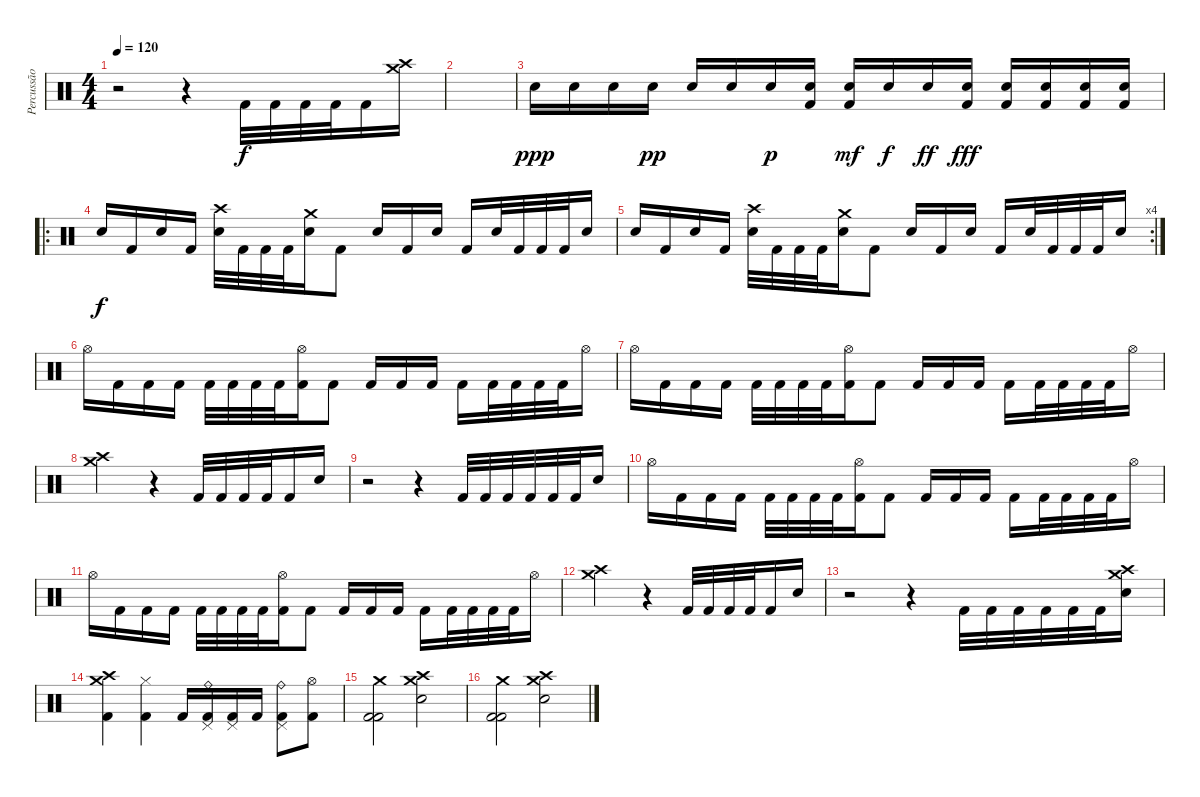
\track ("Percussão" "Percussão") {instrument percussion}
\staff {score}
\articulation defaults
\ts (4 4)
\tempo 120
\clef neutral
\ks c
r.2{dy f} r.4 "Kick (hit) 2".32 "Kick (hit) 2".32 "Kick (hit) 2".32 "Kick (hit) 2".32 "Kick (hit) 2".16 ("Crash high (hit)" "Crash medium (hit)").16 |
|
"Snare (hit) 2".16{dy ppp} "Snare (hit) 2".16 "Snare (hit) 2".16 "Snare (hit) 2".16{dy pp} "Snare (hit) 2".16 "Snare (hit) 2".16 "Snare (hit) 2".16{dy p} ("Snare (hit) 2" "Kick (hit) 2").16 ("Snare (hit) 2" "Kick (hit) 2").16{dy mf} "Snare (hit) 2".16{dy f} "Snare (hit) 2".16{dy ff} ("Snare (hit) 2" "Kick (hit) 2").16{dy fff} ("Snare (hit) 2" "Kick (hit) 2").16 ("Snare (hit) 2" "Kick (hit) 2").16 ("Snare (hit) 2" "Kick (hit) 2").16 ("Snare (hit) 2" "Kick (hit) 2").16 |
\ro "Snare (hit) 2".16{dy f} "Kick (hit) 2".16 "Snare (hit) 2".16 "Kick (hit) 2".16
("Crash high (hit)" "Snare (hit) 2").32 "Kick (hit) 2".32 "Kick (hit) 2".32 "Kick (hit) 2".32 ("Crash medium (hit)" "Snare (hit) 2").16 "Kick (hit) 2".8 "Snare (hit) 2".16 "Kick (hit) 2".16 "Snare (hit) 2".16 "Kick (hit) 2".16 "Snare (hit) 2".32 "Kick (hit) 2".32 "Kick (hit) 2".32 "Kick (hit) 2".32 "Snare (hit) 2".16 |
\rc 4 "Snare (hit) 2".16 "Kick (hit) 2".16 "Snare (hit) 2".16 "Kick (hit) 2".16
("Crash high (hit)" "Snare (hit) 2").32 "Kick (hit) 2".32 "Kick (hit) 2".32 "Kick (hit) 2".32 ("Crash medium (hit)" "Snare (hit) 2").16 "Kick (hit) 2".8 "Snare (hit) 2".16 "Kick (hit) 2".16 "Snare (hit) 2".16 "Kick (hit) 2".16 "Snare (hit) 2".32 "Kick (hit) 2".32 "Kick (hit) 2".32 "Kick (hit) 2".32 "Snare (hit) 2".16 |
"Hi-Hat (open)".16 "Kick (hit) 2".16 "Kick (hit) 2".16 "Kick (hit) 2".16 "Kick (hit) 2".32 "Kick (hit) 2".32 "Kick (hit) 2".32 "Kick (hit) 2".32 ("Kick (hit) 2" "Hi-Hat (open)").16 "Kick (hit) 2".8 "Kick (hit) 2".16 "Kick (hit) 2".16 "Kick (hit) 2".16 "Kick (hit) 2".16 "Kick (hit) 2".32 "Kick (hit) 2".32 "Kick (hit) 2".32 "Kick (hit) 2".32 "Hi-Hat (open)".16 |
"Hi-Hat (open)".16 "Kick (hit) 2".16 "Kick (hit) 2".16 "Kick (hit) 2".16 "Kick (hit) 2".32 "Kick (hit) 2".32 "Kick (hit) 2".32 "Kick (hit) 2".32 ("Kick (hit) 2" "Hi-Hat (open)").16 "Kick (hit) 2".8 "Kick (hit) 2".16 "Kick (hit) 2".16 "Kick (hit) 2".16 "Kick (hit) 2".16 "Kick (hit) 2".32 "Kick (hit) 2".32 "Kick (hit) 2".32 "Kick (hit) 2".32 "Hi-Hat (open)".16 |
("Crash medium (hit)" "Crash high (hit)").2 r.4 "Kick (hit) 2".32 "Kick (hit) 2".32 "Kick (hit) 2".32 "Kick (hit) 2".32 "Kick (hit) 2".16 "Snare (hit) 2".16 |
r.2 r.4 "Kick (hit) 2".32 "Kick (hit) 2".32 "Kick (hit) 2".32 "Kick (hit) 2".32 "Kick (hit) 2".32 "Kick (hit) 2".32 "Snare (hit) 2".16 |
"Hi-Hat (open)".16 "Kick (hit) 2".16 "Kick (hit) 2".16 "Kick (hit) 2".16 "Kick (hit) 2".32 "Kick (hit) 2".32 "Kick (hit) 2".32 "Kick (hit) 2".32 ("Kick (hit) 2" "Hi-Hat (open)").16 "Kick (hit) 2".8 "Kick (hit) 2".16 "Kick (hit) 2".16 "Kick (hit) 2".16 "Kick (hit) 2".16 "Kick (hit) 2".32 "Kick (hit) 2".32 "Kick (hit) 2".32 "Kick (hit) 2".32 "Hi-Hat (open)".16 |
"Hi-Hat (open)".16 "Kick (hit) 2".16 "Kick (hit) 2".16 "Kick (hit) 2".16 "Kick (hit) 2".32 "Kick (hit) 2".32 "Kick (hit) 2".32 "Kick (hit) 2".32 ("Kick (hit) 2" "Hi-Hat (open)").16 "Kick (hit) 2".8 "Kick (hit) 2".16 "Kick (hit) 2".16 "Kick (hit) 2".16 "Kick (hit) 2".16 "Kick (hit) 2".32 "Kick (hit) 2".32 "Kick (hit) 2".32 "Kick (hit) 2".32 "Hi-Hat (open)".16 |
("Crash medium (hit)" "Crash high (hit)").2 r.4 "Kick (hit) 2".32 "Kick (hit) 2".32 "Kick (hit) 2".32 "Kick (hit) 2".32 "Kick (hit) 2".16 "Snare (hit) 2".16 |
r.2 r.4 "Kick (hit) 2".32 "Kick (hit) 2".32 "Kick (hit) 2".32 "Kick (hit) 2".32 "Kick (hit) 2".32 "Kick (hit) 2".32 ("Crash high (hit)" "Crash medium (hit)" "Snare (hit) 2").16 |
("Crash high (hit)" "Crash medium (hit)" "Kick (hit) 2").4 ("Kick (hit) 2" "Hi-Hat (closed)").4 "Kick (hit) 2".16 ("Ride (bell)" "Kick (hit) 2" "Pedal Hi-Hat (hit)").16 ("Kick (hit) 2" "Pedal Hi-Hat (hit)").16 "Kick (hit) 2".16 ("Ride (bell)" "Kick (hit) 2" "Pedal Hi-Hat (hit)").8 ("Kick (hit) 2" "Hi-Hat (open)").8 |
("Kick (hit) 2" "Kick (hit) 2" "Crash medium (hit)").2 ("Crash high (hit)" "Crash medium (hit)" "Snare (hit) 2").2 |
("Kick (hit) 2" "Kick (hit) 2" "Crash medium (hit)").2 ("Crash high (hit)" "Crash medium (hit)" "Snare (hit) 2").2
